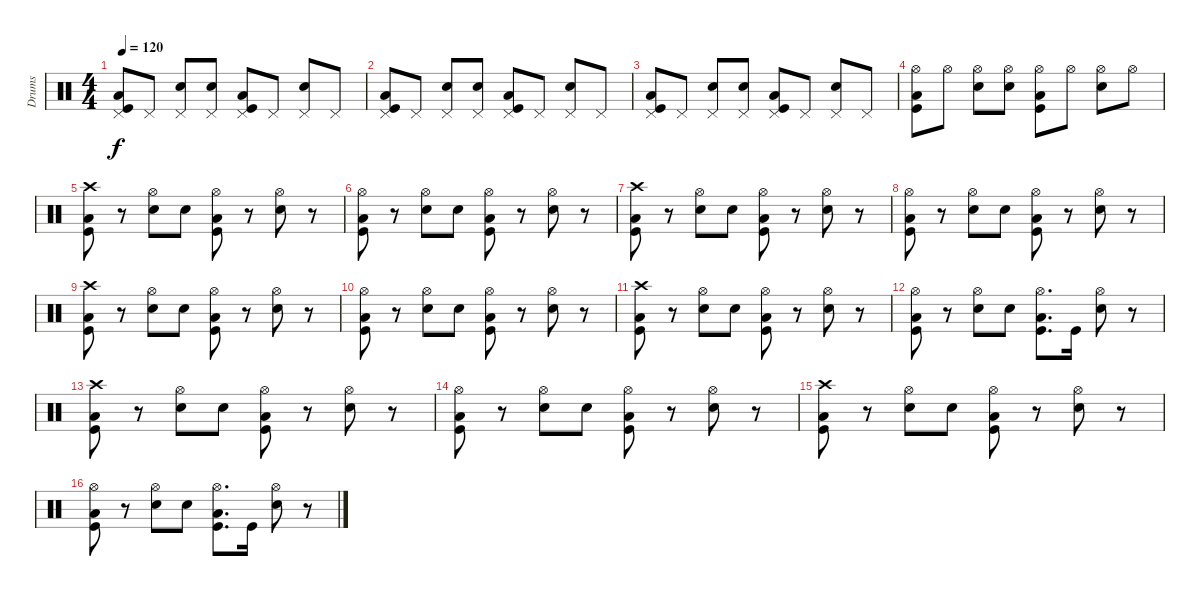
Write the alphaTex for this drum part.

\track ("Drums" "Drums") {instrument percussion}
\staff {score}
\articulation defaults
\ts (4 4)
\tempo 120
\clef neutral
\ks c
("Kick (hit)" "Pedal Hi-Hat (hit)" "Low Floor Tom (hit)").8{dy f} "Pedal Hi-Hat (hit)".8 ("Snare (hit) 2" "Pedal Hi-Hat (hit)").8 ("Snare (hit) 2" "Pedal Hi-Hat (hit)").8 ("Kick (hit)" "Pedal Hi-Hat (hit)" "Low Floor Tom (hit)").8 "Pedal Hi-Hat (hit)".8 ("Snare (hit) 2" "Pedal Hi-Hat (hit)").8 "Pedal Hi-Hat (hit)".8 |
("Kick (hit)" "Pedal Hi-Hat (hit)" "Low Floor Tom (hit)").8 "Pedal Hi-Hat (hit)".8 ("Snare (hit) 2" "Pedal Hi-Hat (hit)").8 ("Snare (hit) 2" "Pedal Hi-Hat (hit)").8 ("Kick (hit)" "Pedal Hi-Hat (hit)" "Low Floor Tom (hit)").8 "Pedal Hi-Hat (hit)".8 ("Snare (hit) 2" "Pedal Hi-Hat (hit)").8 "Pedal Hi-Hat (hit)".8 |
("Kick (hit)" "Pedal Hi-Hat (hit)" "Low Floor Tom (hit)").8 "Pedal Hi-Hat (hit)".8 ("Snare (hit) 2" "Pedal Hi-Hat (hit)").8 ("Snare (hit) 2" "Pedal Hi-Hat (hit)").8 ("Kick (hit)" "Pedal Hi-Hat (hit)" "Low Floor Tom (hit)").8 "Pedal Hi-Hat (hit)".8 ("Snare (hit) 2" "Pedal Hi-Hat (hit)").8 "Pedal Hi-Hat (hit)".8 |
("Kick (hit)" "Hi-Hat (open)" "Low Floor Tom (hit)").8 "Hi-Hat (open)".8 ("Snare (hit) 2" "Hi-Hat (open)").8 ("Snare (hit) 2" "Hi-Hat (open)").8 ("Kick (hit)" "Hi-Hat (open)" "Low Floor Tom (hit)").8 "Hi-Hat (open)".8 ("Snare (hit) 2" "Hi-Hat (open)").8 "Hi-Hat (open)".8 |
("Kick (hit)" "Crash high (hit)" "Low Floor Tom (hit)").8 r.8 ("Snare (hit) 2" "Hi-Hat (open)").8 "Snare (hit) 2".8 ("Kick (hit)" "Hi-Hat (open)" "Low Floor Tom (hit)").8 r.8 ("Snare (hit) 2" "Hi-Hat (open)").8 r.8 |
("Kick (hit)" "Hi-Hat (open)" "Low Floor Tom (hit)").8 r.8 ("Snare (hit) 2" "Hi-Hat (open)").8 "Snare (hit) 2".8 ("Kick (hit)" "Hi-Hat (open)" "Low Floor Tom (hit)").8 r.8 ("Snare (hit) 2" "Hi-Hat (open)").8 r.8 |
("Kick (hit)" "Crash high (hit)" "Low Floor Tom (hit)").8 r.8 ("Snare (hit) 2" "Hi-Hat (open)").8 "Snare (hit) 2".8 ("Kick (hit)" "Hi-Hat (open)" "Low Floor Tom (hit)").8 r.8 ("Snare (hit) 2" "Hi-Hat (open)").8 r.8 |
("Kick (hit)" "Hi-Hat (open)" "Low Floor Tom (hit)").8 r.8 ("Snare (hit) 2" "Hi-Hat (open)").8 "Snare (hit) 2".8 ("Kick (hit)" "Hi-Hat (open)" "Low Floor Tom (hit)").8 r.8 ("Snare (hit) 2" "Hi-Hat (open)").8 r.8 |
("Kick (hit)" "Crash high (hit)" "Low Floor Tom (hit)").8 r.8 ("Snare (hit) 2" "Hi-Hat (open)").8 "Snare (hit) 2".8 ("Kick (hit)" "Hi-Hat (open)" "Low Floor Tom (hit)").8 r.8 ("Snare (hit) 2" "Hi-Hat (open)").8 r.8 |
("Kick (hit)" "Hi-Hat (open)" "Low Floor Tom (hit)").8 r.8 ("Snare (hit) 2" "Hi-Hat (open)").8 "Snare (hit) 2".8 ("Kick (hit)" "Hi-Hat (open)" "Low Floor Tom (hit)").8 r.8 ("Snare (hit) 2" "Hi-Hat (open)").8 r.8 |
("Kick (hit)" "Crash high (hit)" "Low Floor Tom (hit)").8 r.8 ("Snare (hit) 2" "Hi-Hat (open)").8 "Snare (hit) 2".8 ("Kick (hit)" "Hi-Hat (open)" "Low Floor Tom (hit)").8 r.8 ("Snare (hit) 2" "Hi-Hat (open)").8 r.8 |
("Kick (hit)" "Hi-Hat (open)" "Low Floor Tom (hit)").8 r.8 ("Snare (hit) 2" "Hi-Hat (open)").8 "Snare (hit) 2".8 ("Kick (hit)" "Hi-Hat (open)" "Low Floor Tom (hit)").8{d} "Kick (hit)".16 ("Snare (hit) 2" "Hi-Hat (open)").8 r.8 |
("Kick (hit)" "Crash high (hit)" "Low Floor Tom (hit)").8 r.8 ("Snare (hit) 2" "Hi-Hat (open)").8 "Snare (hit) 2".8 ("Kick (hit)" "Hi-Hat (open)" "Low Floor Tom (hit)").8 r.8 ("Snare (hit) 2" "Hi-Hat (open)").8 r.8 |
("Kick (hit)" "Hi-Hat (open)" "Low Floor Tom (hit)").8 r.8 ("Snare (hit) 2" "Hi-Hat (open)").8 "Snare (hit) 2".8 ("Kick (hit)" "Hi-Hat (open)" "Low Floor Tom (hit)").8 r.8 ("Snare (hit) 2" "Hi-Hat (open)").8 r.8 |
("Kick (hit)" "Crash high (hit)" "Low Floor Tom (hit)").8 r.8 ("Snare (hit) 2" "Hi-Hat (open)").8 "Snare (hit) 2".8 ("Kick (hit)" "Hi-Hat (open)" "Low Floor Tom (hit)").8 r.8 ("Snare (hit) 2" "Hi-Hat (open)").8 r.8 |
("Kick (hit)" "Hi-Hat (open)" "Low Floor Tom (hit)").8 r.8 ("Snare (hit) 2" "Hi-Hat (open)").8 "Snare (hit) 2".8 ("Kick (hit)" "Hi-Hat (open)" "Low Floor Tom (hit)").8{d} "Kick (hit)".16 ("Snare (hit) 2" "Hi-Hat (open)").8 r.8
